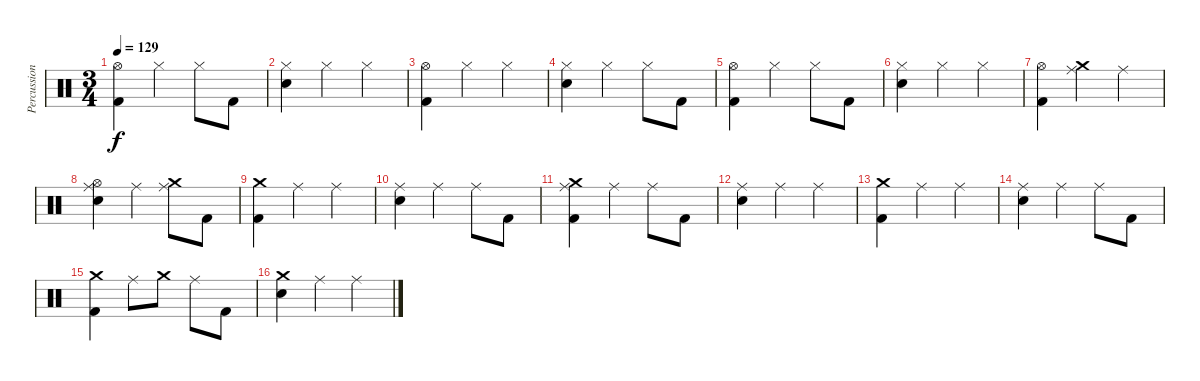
\track ("Percussion" "Percussion") {instrument percussion}
\staff {score}
\articulation defaults
\ts (3 4)
\tempo 129
\clef neutral
\ks c
("Hi-Hat (open)" "Kick (hit) 2").4{dy f} "Hi-Hat (closed)".4 "Hi-Hat (closed)".8 "Kick (hit) 2".8 |
("Hi-Hat (closed)" "Electric Snare (hit)").4 "Hi-Hat (closed)".4 "Hi-Hat (closed)".4 |
("Hi-Hat (open)" "Kick (hit) 2").4 "Hi-Hat (closed)".4 "Hi-Hat (closed)".4 |
("Hi-Hat (closed)" "Electric Snare (hit)").4 "Hi-Hat (closed)".4 "Hi-Hat (closed)".8 "Kick (hit) 2".8 |
("Hi-Hat (open)" "Kick (hit) 2").4 "Hi-Hat (closed)".4 "Hi-Hat (closed)".8 "Kick (hit) 2".8 |
("Hi-Hat (closed)" "Electric Snare (hit)").4 "Hi-Hat (closed)".4 "Hi-Hat (closed)".4 |
("Hi-Hat (open)" "Kick (hit) 2").4 ("Crash medium (hit)" "Ride (middle)").4 "Ride (middle)".4 |
("Hi-Hat (open)" "Ride (middle)" "Electric Snare (hit)").4 "Ride (middle)".4 ("Crash medium (hit)" "Ride (middle)").8 "Kick (hit) 2".8 |
("Crash medium (hit)" "Kick (hit) 2").4 "Ride (middle)".4 "Ride (middle)".4 |
("Ride (middle)" "Electric Snare (hit)").4 "Ride (middle)".4 "Ride (middle)".8 "Kick (hit) 2".8 |
("Crash medium (hit)" "Ride (middle)" "Kick (hit) 2").4 "Ride (middle)".4 "Ride (middle)".8 "Kick (hit) 2".8 |
("Ride (middle)" "Electric Snare (hit)").4 "Ride (middle)".4 "Ride (middle)".4 |
("Crash medium (hit)" "Kick (hit) 2").4 "Ride (middle)".4 "Ride (middle)".4 |
("Ride (middle)" "Electric Snare (hit)").4 "Ride (middle)".4 "Ride (middle)".8 "Kick (hit) 2".8 |
("Crash medium (hit)" "Kick (hit) 2").4 "Ride (middle)".8 "Crash medium (hit)".8 "Ride (middle)".8 "Kick (hit) 2".8 |
("Crash medium (hit)" "Electric Snare (hit)").4 "Ride (middle)".4 "Ride (middle)".4
